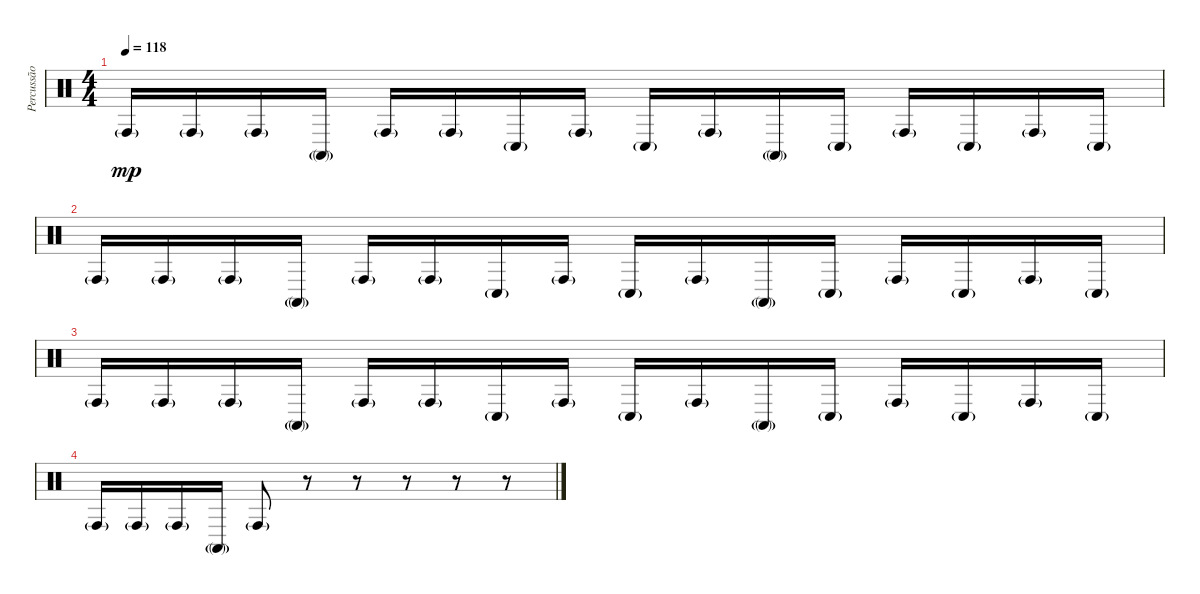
\track ("Percussão" "Percussão") {instrument percussion}
\staff {score}
\articulation defaults
\ts (4 4)
\tempo 118
\clef neutral
\ks c "Conga high (hit)"{g}.16{dy mp} "Conga high (hit)"{g}.16 "Conga high (hit)"{g}.16 "Conga high (mute)"{g}.16 "Conga high (hit)"{g}.16 "Conga high (hit)"{g}.16 "Conga low (hit)"{g}.16 "Conga high (hit)"{g}.16 "Conga low (hit)"{g}.16 "Conga high (hit)"{g}.16 "Conga high (mute)"{g}.16 "Conga low (hit)"{g}.16 "Conga high (hit)"{g}.16 "Conga low (hit)"{g}.16 "Conga high (hit)"{g}.16 "Conga low (hit)"{g}.16
|
"Conga high (hit)"{g}.16 "Conga high (hit)"{g}.16 "Conga high (hit)"{g}.16 "Conga high (mute)"{g}.16 "Conga high (hit)"{g}.16 "Conga high (hit)"{g}.16 "Conga low (hit)"{g}.16 "Conga high (hit)"{g}.16 "Conga low (hit)"{g}.16 "Conga high (hit)"{g}.16 "Conga high (mute)"{g}.16 "Conga low (hit)"{g}.16 "Conga high (hit)"{g}.16 "Conga low (hit)"{g}.16 "Conga high (hit)"{g}.16 "Conga low (hit)"{g}.16 |
"Conga high (hit)"{g}.16 "Conga high (hit)"{g}.16 "Conga high (hit)"{g}.16 "Conga high (mute)"{g}.16 "Conga high (hit)"{g}.16 "Conga high (hit)"{g}.16 "Conga low (hit)"{g}.16 "Conga high (hit)"{g}.16 "Conga low (hit)"{g}.16 "Conga high (hit)"{g}.16 "Conga high (mute)"{g}.16 "Conga low (hit)"{g}.16 "Conga high (hit)"{g}.16 "Conga low (hit)"{g}.16 "Conga high (hit)"{g}.16 "Conga low (hit)"{g}.16 |
"Conga high (hit)"{g}.16 "Conga high (hit)"{g}.16 "Conga high (hit)"{g}.16 "Conga high (mute)"{g}.16 "Conga high (hit)"{g}.8 r.8 r.8 r.8 r.8 r.8
